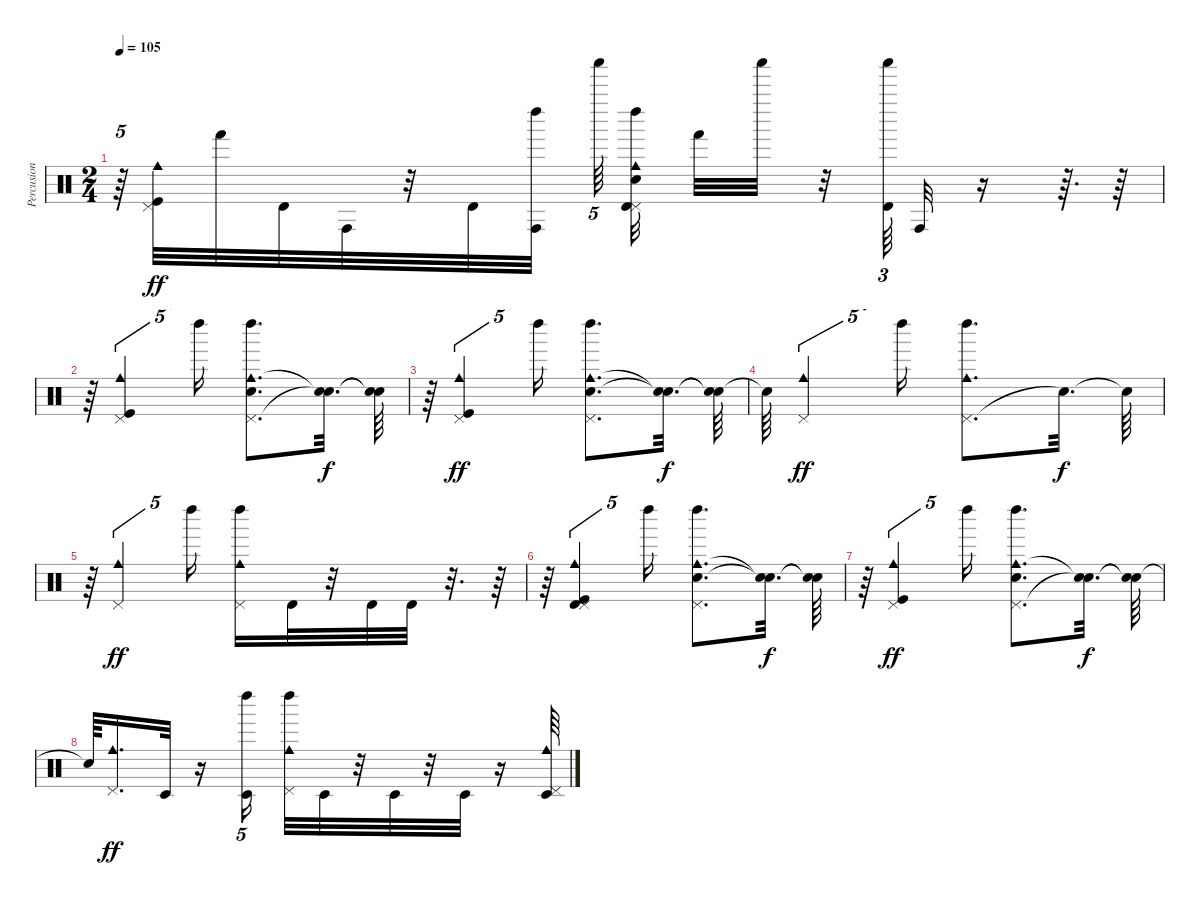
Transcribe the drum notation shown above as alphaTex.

\track ("Percusion" "Percusion") {instrument percussion}
\staff {score}
\articulation defaults
\ts (2 4)
\tempo 105
\clef neutral
\ks c
r.64{tu (5 4) dy f} ("Cowbell medium (hit)" "Kick (hit)" "Pedal Hi-Hat (hit)").32{dy ff} "Hand (hit)".32 "Timbale high (hit)".32 "Conga high (hit)".32 r.32 "Timbale high (hit)".32 ("Left Maraca (hit)" "Conga high (hit)").32{beam splitsecondary} "Shaker (hit)".64{tu (5 4)} ("Electric Snare (hit)" "Cowbell medium (hit)" "Pedal Hi-Hat (hit)" "Left Maraca (hit)" "Timbale high (hit)").32 "Hand (hit)".32 "Shaker (hit)".32 r.32 ("Timbale high (hit)" "Shaker (hit)").64{tu (3 2)} "Conga high (hit)".32 r.16 r.64{d} r.64 |
r.64 ("Pedal Hi-Hat (hit)" "Cowbell medium (hit)" "Kick (hit)").4{tu (5 4)} "Left Maraca (hit)".16{tu (5 4)} ("Pedal Hi-Hat (hit)" "Cowbell medium (hit)" "Electric Snare (hit)" "Left Maraca (hit)").8{d} ("Snare (hit)"{t} "Snare (hit)"{t}).32{d dy f} ("Snare (hit)"{t} "Snare (hit)"{t}).64 |
r.64 ("Cowbell medium (hit)" "Kick (hit)" "Pedal Hi-Hat (hit)").4{tu (5 4) dy ff} "Left Maraca (hit)".16{tu (5 4)} ("Cowbell medium (hit)" "Snare (hit) 2" "Pedal Hi-Hat (hit)" "Left Maraca (hit)").8{d} ("Snare (hit)"{t} "Snare (hit)"{t}).32{d dy f} ("Snare (hit)"{t} "Snare (hit)"{t}).64 |
"Snare (hit)"{t}.64 ("Pedal Hi-Hat (hit)" "Cowbell medium (hit)").4{tu (5 4) dy ff} "Left Maraca (hit)".16{tu (5 4)} ("Pedal Hi-Hat (hit)" "Cowbell medium (hit)" "Left Maraca (hit)").8{d} "Snare (hit)"{t}.32{d dy f} "Snare (hit)"{t}.64 |
r.64 ("Cowbell medium (hit)" "Pedal Hi-Hat (hit)").4{tu (5 4) dy ff} "Left Maraca (hit)".16{tu (5 4)} ("Pedal Hi-Hat (hit)" "Cowbell medium (hit)" "Left Maraca (hit)").16 "Timbale high (hit)".32 r.32 "Timbale high (hit)".32 "Timbale high (hit)".32 r.32{d} r.64 |
r.64 ("Timbale high (hit)" "Pedal Hi-Hat (hit)" "Cowbell medium (hit)" "Kick (hit)").4{tu (5 4)} "Left Maraca (hit)".16{tu (5 4)} ("Cowbell medium (hit)" "Electric Snare (hit)" "Pedal Hi-Hat (hit)" "Left Maraca (hit)").8{d} ("Snare (hit)"{t} "Snare (hit)"{t}).32{d dy f} ("Snare (hit)"{t} "Snare (hit)"{t}).64 |
r.64 ("Kick (hit)" "Cowbell medium (hit)" "Pedal Hi-Hat (hit)").4{tu (5 4) dy ff} "Left Maraca (hit)".16{tu (5 4)} ("Pedal Hi-Hat (hit)" "Cowbell medium (hit)" "Left Maraca (hit)" "Snare (hit) 2").8{d} ("Snare (hit)"{t} "Snare (hit)"{t}).32{d dy f} ("Snare (hit)"{t} "Snare (hit)"{t}).64 |
"Snare (hit)"{t}.64 ("Pedal Hi-Hat (hit)" "Cowbell medium (hit)").16{d dy ff} "Timbale low (hit)".32 r.16 ("Timbale low (hit)" "Left Maraca (hit)").16{tu (5 4)} ("Cowbell medium (hit)" "Pedal Hi-Hat (hit)" "Left Maraca (hit)").32 "Timbale low (hit)".32 r.32 "Timbale low (hit)".32 r.32 "Timbale low (hit)".32 r.16 ("Timbale low (hit)" "Cowbell medium (hit)" "Pedal Hi-Hat (hit)").64
